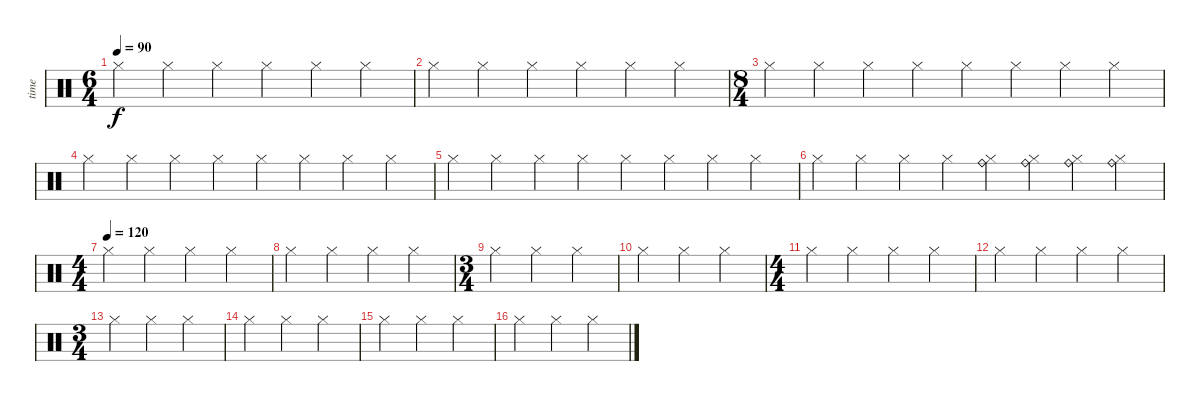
\track ("time" "time") {instrument percussion}
\staff {score}
\articulation defaults
\ts (6 4)
\tempo 90
\clef neutral
\ks c "Hi-Hat (closed)".4{dy f} "Hi-Hat (closed)".4 "Hi-Hat (closed)".4 "Hi-Hat (closed)".4 "Hi-Hat (closed)".4 "Hi-Hat (closed)".4
|
"Hi-Hat (closed)".4 "Hi-Hat (closed)".4 "Hi-Hat (closed)".4 "Hi-Hat (closed)".4 "Hi-Hat (closed)".4 "Hi-Hat (closed)".4 |
\ts (8 4)
"Hi-Hat (closed)".4 "Hi-Hat (closed)".4 "Hi-Hat (closed)".4 "Hi-Hat (closed)".4 "Hi-Hat (closed)".4 "Hi-Hat (closed)".4 "Hi-Hat (closed)".4 "Hi-Hat (closed)".4 |
"Hi-Hat (closed)".4 "Hi-Hat (closed)".4 "Hi-Hat (closed)".4 "Hi-Hat (closed)".4 "Hi-Hat (closed)".4 "Hi-Hat (closed)".4 "Hi-Hat (closed)".4 "Hi-Hat (closed)".4 |
"Hi-Hat (closed)".4 "Hi-Hat (closed)".4 "Hi-Hat (closed)".4 "Hi-Hat (closed)".4 "Hi-Hat (closed)".4 "Hi-Hat (closed)".4 "Hi-Hat (closed)".4 "Hi-Hat (closed)".4 |
"Hi-Hat (closed)".4 "Hi-Hat (closed)".4 "Hi-Hat (closed)".4 "Hi-Hat (closed)".4 ("Ride (bell)" "Hi-Hat (closed)").4 ("Ride (bell)" "Hi-Hat (closed)").4 ("Ride (bell)" "Hi-Hat (closed)").4 ("Ride (bell)" "Hi-Hat (closed)").4 |
\ts (4 4)
\tempo (120)
"Hi-Hat (closed)".4 "Hi-Hat (closed)".4 "Hi-Hat (closed)".4 "Hi-Hat (closed)".4 |
"Hi-Hat (closed)".4 "Hi-Hat (closed)".4 "Hi-Hat (closed)".4 "Hi-Hat (closed)".4 |
\ts (3 4)
"Hi-Hat (closed)".4 "Hi-Hat (closed)".4 "Hi-Hat (closed)".4 |
"Hi-Hat (closed)".4 "Hi-Hat (closed)".4 "Hi-Hat (closed)".4 |
\ts (4 4)
"Hi-Hat (closed)".4 "Hi-Hat (closed)".4 "Hi-Hat (closed)".4 "Hi-Hat (closed)".4 |
"Hi-Hat (closed)".4 "Hi-Hat (closed)".4 "Hi-Hat (closed)".4 "Hi-Hat (closed)".4 |
\ts (3 4)
"Hi-Hat (closed)".4 "Hi-Hat (closed)".4 "Hi-Hat (closed)".4 |
"Hi-Hat (closed)".4 "Hi-Hat (closed)".4 "Hi-Hat (closed)".4 |
"Hi-Hat (closed)".4 "Hi-Hat (closed)".4 "Hi-Hat (closed)".4 |
"Hi-Hat (closed)".4 "Hi-Hat (closed)".4 "Hi-Hat (closed)".4
